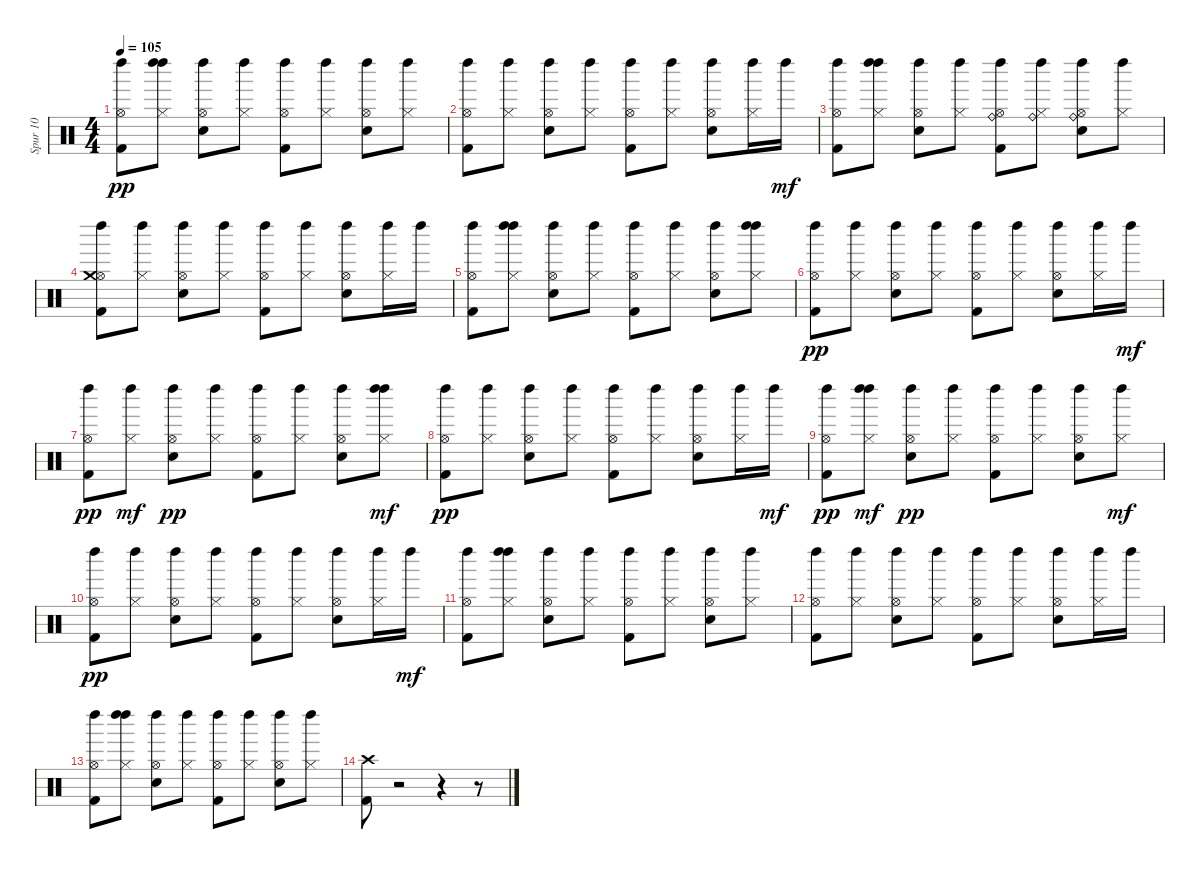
\track ("Spur 10" "Spur 10") {instrument percussion}
\staff {score}
\articulation defaults
\ts (4 4)
\tempo 105
\clef neutral
\ks c
("Left Maraca (hit)" "Kick (hit) 2" "Hi-Hat (open)").8{dy pp} ("Left Maraca (hit)" "Left Maraca (hit)" "Hi-Hat (closed)").8 ("Left Maraca (hit)" "Snare (hit) 2" "Hi-Hat (open)").8 ("Left Maraca (hit)" "Hi-Hat (closed)").8 ("Left Maraca (hit)" "Kick (hit) 2" "Hi-Hat (open)").8 ("Left Maraca (hit)" "Hi-Hat (closed)").8 ("Left Maraca (hit)" "Snare (hit) 2" "Hi-Hat (open)").8 ("Left Maraca (hit)" "Hi-Hat (closed)").8 |
("Kick (hit) 2" "Left Maraca (hit)" "Hi-Hat (open)").8 ("Left Maraca (hit)" "Hi-Hat (closed)").8 ("Snare (hit) 2" "Left Maraca (hit)" "Hi-Hat (open)").8 ("Left Maraca (hit)" "Hi-Hat (closed)").8 ("Kick (hit) 2" "Left Maraca (hit)" "Hi-Hat (open)").8 ("Left Maraca (hit)" "Hi-Hat (closed)").8 ("Snare (hit) 2" "Left Maraca (hit)" "Hi-Hat (open)").8 ("Left Maraca (hit)" "Hi-Hat (closed)").16 "Left Maraca (hit)".16{dy mf} |
("Kick (hit) 2" "Hi-Hat (open)" "Left Maraca (hit)").8 ("Hi-Hat (closed)" "Left Maraca (hit)" "Left Maraca (hit)").8 ("Snare (hit) 2" "Hi-Hat (open)" "Left Maraca (hit)").8 ("Hi-Hat (closed)" "Left Maraca (hit)").8 ("Kick (hit) 2" "Hi-Hat (open)" "Left Maraca (hit)" "Ride (bell)").8 ("Hi-Hat (closed)" "Left Maraca (hit)" "Ride (bell)").8 ("Snare (hit) 2" "Hi-Hat (open)" "Left Maraca (hit)" "Ride (bell)").8 ("Hi-Hat (closed)" "Left Maraca (hit)").8 |
("Hi-Hat (open)" "Left Maraca (hit)" "Kick (hit) 2" "Crash medium (hit)").8 ("Hi-Hat (closed)" "Left Maraca (hit)").8 ("Hi-Hat (open)" "Left Maraca (hit)" "Snare (hit) 2").8 ("Hi-Hat (closed)" "Left Maraca (hit)").8 ("Hi-Hat (open)" "Left Maraca (hit)" "Kick (hit) 2").8 ("Hi-Hat (closed)" "Left Maraca (hit)").8 ("Hi-Hat (open)" "Left Maraca (hit)" "Snare (hit) 2").8 ("Hi-Hat (closed)" "Left Maraca (hit)").16 "Left Maraca (hit)".16 |
("Hi-Hat (open)" "Kick (hit) 2" "Left Maraca (hit)").8 ("Hi-Hat (closed)" "Left Maraca (hit)" "Left Maraca (hit)").8 ("Hi-Hat (open)" "Snare (hit) 2" "Left Maraca (hit)").8 ("Hi-Hat (closed)" "Left Maraca (hit)").8 ("Hi-Hat (open)" "Kick (hit) 2" "Left Maraca (hit)").8 ("Hi-Hat (closed)" "Left Maraca (hit)").8 ("Hi-Hat (open)" "Snare (hit) 2" "Left Maraca (hit)").8 ("Hi-Hat (closed)" "Left Maraca (hit)" "Left Maraca (hit)").8 |
("Left Maraca (hit)" "Hi-Hat (open)" "Kick (hit) 2").8{dy pp} ("Left Maraca (hit)" "Hi-Hat (closed)").8 ("Left Maraca (hit)" "Hi-Hat (open)" "Snare (hit) 2").8 ("Left Maraca (hit)" "Hi-Hat (closed)").8 ("Left Maraca (hit)" "Hi-Hat (open)" "Kick (hit) 2").8 ("Left Maraca (hit)" "Hi-Hat (closed)").8 ("Left Maraca (hit)" "Hi-Hat (open)" "Snare (hit) 2").8 ("Left Maraca (hit)" "Hi-Hat (closed)").16 "Left Maraca (hit)".16{dy mf} |
("Left Maraca (hit)" "Hi-Hat (open)" "Kick (hit) 2").8{dy pp} ("Hi-Hat (closed)" "Left Maraca (hit)").8{dy mf} ("Left Maraca (hit)" "Hi-Hat (open)" "Snare (hit) 2").8{dy pp} ("Left Maraca (hit)" "Hi-Hat (closed)").8 ("Left Maraca (hit)" "Hi-Hat (open)" "Kick (hit) 2").8 ("Left Maraca (hit)" "Hi-Hat (closed)").8 ("Left Maraca (hit)" "Hi-Hat (open)" "Snare (hit) 2").8 ("Left Maraca (hit)" "Hi-Hat (closed)" "Left Maraca (hit)").8{dy mf} |
("Left Maraca (hit)" "Hi-Hat (open)" "Kick (hit) 2").8{dy pp} ("Left Maraca (hit)" "Hi-Hat (closed)").8 ("Left Maraca (hit)" "Hi-Hat (open)" "Snare (hit) 2").8 ("Left Maraca (hit)" "Hi-Hat (closed)").8 ("Left Maraca (hit)" "Hi-Hat (open)" "Kick (hit) 2").8 ("Left Maraca (hit)" "Hi-Hat (closed)").8 ("Left Maraca (hit)" "Hi-Hat (open)" "Snare (hit) 2").8 ("Left Maraca (hit)" "Hi-Hat (closed)").16 "Left Maraca (hit)".16{dy mf} |
("Left Maraca (hit)" "Hi-Hat (open)" "Kick (hit) 2").8{dy pp} ("Left Maraca (hit)" "Hi-Hat (closed)" "Left Maraca (hit)").8{dy mf} ("Left Maraca (hit)" "Hi-Hat (open)" "Snare (hit) 2").8{dy pp} ("Left Maraca (hit)" "Hi-Hat (closed)").8 ("Left Maraca (hit)" "Hi-Hat (open)" "Kick (hit) 2").8 ("Left Maraca (hit)" "Hi-Hat (closed)").8 ("Left Maraca (hit)" "Hi-Hat (open)" "Snare (hit) 2").8 ("Hi-Hat (closed)" "Left Maraca (hit)").8{dy mf} |
("Kick (hit) 2" "Left Maraca (hit)" "Hi-Hat (open)").8{dy pp} ("Left Maraca (hit)" "Hi-Hat (closed)").8 ("Snare (hit) 2" "Left Maraca (hit)" "Hi-Hat (open)").8 ("Left Maraca (hit)" "Hi-Hat (closed)").8 ("Kick (hit) 2" "Left Maraca (hit)" "Hi-Hat (open)").8 ("Left Maraca (hit)" "Hi-Hat (closed)").8 ("Snare (hit) 2" "Left Maraca (hit)" "Hi-Hat (open)").8 ("Left Maraca (hit)" "Hi-Hat (closed)").16 "Left Maraca (hit)".16{dy mf} |
("Kick (hit) 2" "Hi-Hat (open)" "Left Maraca (hit)").8 ("Hi-Hat (closed)" "Left Maraca (hit)" "Left Maraca (hit)").8 ("Snare (hit) 2" "Hi-Hat (open)" "Left Maraca (hit)").8 ("Hi-Hat (closed)" "Left Maraca (hit)").8 ("Kick (hit) 2" "Hi-Hat (open)" "Left Maraca (hit)").8 ("Hi-Hat (closed)" "Left Maraca (hit)").8 ("Snare (hit) 2" "Hi-Hat (open)" "Left Maraca (hit)").8 ("Hi-Hat (closed)" "Left Maraca (hit)").8 |
("Hi-Hat (open)" "Left Maraca (hit)" "Kick (hit) 2").8 ("Hi-Hat (closed)" "Left Maraca (hit)").8 ("Hi-Hat (open)" "Left Maraca (hit)" "Snare (hit) 2").8 ("Hi-Hat (closed)" "Left Maraca (hit)").8 ("Hi-Hat (open)" "Left Maraca (hit)" "Kick (hit) 2").8 ("Hi-Hat (closed)" "Left Maraca (hit)").8 ("Hi-Hat (open)" "Left Maraca (hit)" "Snare (hit) 2").8 ("Hi-Hat (closed)" "Left Maraca (hit)").16 "Left Maraca (hit)".16 |
("Hi-Hat (open)" "Kick (hit) 2" "Left Maraca (hit)").8 ("Hi-Hat (closed)" "Left Maraca (hit)" "Left Maraca (hit)").8 ("Hi-Hat (open)" "Snare (hit) 2" "Left Maraca (hit)").8 ("Hi-Hat (closed)" "Left Maraca (hit)").8 ("Hi-Hat (open)" "Kick (hit) 2" "Left Maraca (hit)").8 ("Hi-Hat (closed)" "Left Maraca (hit)").8 ("Hi-Hat (open)" "Snare (hit) 2" "Left Maraca (hit)").8 ("Hi-Hat (closed)" "Left Maraca (hit)").8 |
("Kick (hit) 2" "Crash high (hit)").8 r.2 r.4 r.8
